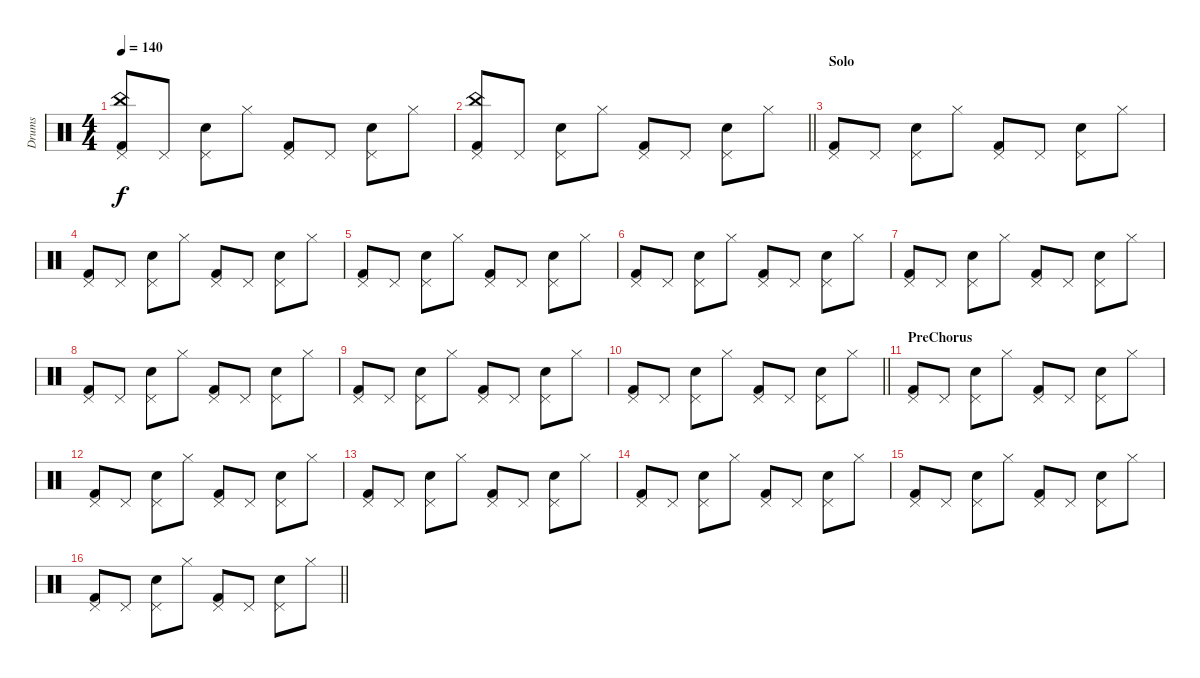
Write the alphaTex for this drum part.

\track ("Drums" "Drums") {instrument percussion}
\staff {score}
\articulation defaults
\ts (4 4)
\tempo 140
\clef neutral
\ks c
("Kick (hit) 2" "China (hit)" "Pedal Hi-Hat (hit)").8{dy f} "Pedal Hi-Hat (hit)".8 ("Snare (hit) 2" "Pedal Hi-Hat (hit)").8 "Hi-Hat (closed)".8 ("Kick (hit) 2" "Pedal Hi-Hat (hit)").8 "Pedal Hi-Hat (hit)".8 ("Snare (hit) 2" "Pedal Hi-Hat (hit)").8 "Hi-Hat (closed)".8 |
\barLineRight lightlight
("Kick (hit) 2" "China (hit)" "Pedal Hi-Hat (hit)").8 "Pedal Hi-Hat (hit)".8 ("Snare (hit) 2" "Pedal Hi-Hat (hit)").8 "Hi-Hat (closed)".8 ("Kick (hit) 2" "Pedal Hi-Hat (hit)").8 "Pedal Hi-Hat (hit)".8 ("Snare (hit) 2" "Pedal Hi-Hat (hit)").8 "Hi-Hat (closed)".8 |
\section ("" "Solo")
("Kick (hit) 2" "Pedal Hi-Hat (hit)").8 "Pedal Hi-Hat (hit)".8 ("Snare (hit) 2" "Pedal Hi-Hat (hit)").8 "Hi-Hat (closed)".8 ("Kick (hit) 2" "Pedal Hi-Hat (hit)").8 "Pedal Hi-Hat (hit)".8 ("Snare (hit) 2" "Pedal Hi-Hat (hit)").8 "Hi-Hat (closed)".8 |
("Kick (hit) 2" "Pedal Hi-Hat (hit)").8 "Pedal Hi-Hat (hit)".8 ("Snare (hit) 2" "Pedal Hi-Hat (hit)").8 "Hi-Hat (closed)".8 ("Kick (hit) 2" "Pedal Hi-Hat (hit)").8 "Pedal Hi-Hat (hit)".8 ("Snare (hit) 2" "Pedal Hi-Hat (hit)").8 "Hi-Hat (closed)".8 |
("Kick (hit) 2" "Pedal Hi-Hat (hit)").8 "Pedal Hi-Hat (hit)".8 ("Snare (hit) 2" "Pedal Hi-Hat (hit)").8 "Hi-Hat (closed)".8 ("Kick (hit) 2" "Pedal Hi-Hat (hit)").8 "Pedal Hi-Hat (hit)".8 ("Snare (hit) 2" "Pedal Hi-Hat (hit)").8 "Hi-Hat (closed)".8 |
("Kick (hit) 2" "Pedal Hi-Hat (hit)").8 "Pedal Hi-Hat (hit)".8 ("Snare (hit) 2" "Pedal Hi-Hat (hit)").8 "Hi-Hat (closed)".8 ("Kick (hit) 2" "Pedal Hi-Hat (hit)").8 "Pedal Hi-Hat (hit)".8 ("Snare (hit) 2" "Pedal Hi-Hat (hit)").8 "Hi-Hat (closed)".8 |
("Kick (hit) 2" "Pedal Hi-Hat (hit)").8 "Pedal Hi-Hat (hit)".8 ("Snare (hit) 2" "Pedal Hi-Hat (hit)").8 "Hi-Hat (closed)".8 ("Kick (hit) 2" "Pedal Hi-Hat (hit)").8 "Pedal Hi-Hat (hit)".8 ("Snare (hit) 2" "Pedal Hi-Hat (hit)").8 "Hi-Hat (closed)".8 |
("Kick (hit) 2" "Pedal Hi-Hat (hit)").8 "Pedal Hi-Hat (hit)".8 ("Snare (hit) 2" "Pedal Hi-Hat (hit)").8 "Hi-Hat (closed)".8 ("Kick (hit) 2" "Pedal Hi-Hat (hit)").8 "Pedal Hi-Hat (hit)".8 ("Snare (hit) 2" "Pedal Hi-Hat (hit)").8 "Hi-Hat (closed)".8 |
("Kick (hit) 2" "Pedal Hi-Hat (hit)").8 "Pedal Hi-Hat (hit)".8 ("Snare (hit) 2" "Pedal Hi-Hat (hit)").8 "Hi-Hat (closed)".8 ("Kick (hit) 2" "Pedal Hi-Hat (hit)").8 "Pedal Hi-Hat (hit)".8 ("Snare (hit) 2" "Pedal Hi-Hat (hit)").8 "Hi-Hat (closed)".8 |
\barLineRight lightlight
("Kick (hit) 2" "Pedal Hi-Hat (hit)").8 "Pedal Hi-Hat (hit)".8 ("Snare (hit) 2" "Pedal Hi-Hat (hit)").8 "Hi-Hat (closed)".8 ("Kick (hit) 2" "Pedal Hi-Hat (hit)").8 "Pedal Hi-Hat (hit)".8 ("Snare (hit) 2" "Pedal Hi-Hat (hit)").8 "Hi-Hat (closed)".8 |
\section ("" "PreChorus")
("Kick (hit) 2" "Pedal Hi-Hat (hit)").8 "Pedal Hi-Hat (hit)".8 ("Snare (hit) 2" "Pedal Hi-Hat (hit)").8 "Hi-Hat (closed)".8 ("Kick (hit) 2" "Pedal Hi-Hat (hit)").8 "Pedal Hi-Hat (hit)".8 ("Snare (hit) 2" "Pedal Hi-Hat (hit)").8 "Hi-Hat (closed)".8 |
("Kick (hit) 2" "Pedal Hi-Hat (hit)").8 "Pedal Hi-Hat (hit)".8 ("Snare (hit) 2" "Pedal Hi-Hat (hit)").8 "Hi-Hat (closed)".8 ("Kick (hit) 2" "Pedal Hi-Hat (hit)").8 "Pedal Hi-Hat (hit)".8 ("Snare (hit) 2" "Pedal Hi-Hat (hit)").8 "Hi-Hat (closed)".8 |
("Kick (hit) 2" "Pedal Hi-Hat (hit)").8 "Pedal Hi-Hat (hit)".8 ("Snare (hit) 2" "Pedal Hi-Hat (hit)").8 "Hi-Hat (closed)".8 ("Kick (hit) 2" "Pedal Hi-Hat (hit)").8 "Pedal Hi-Hat (hit)".8 ("Snare (hit) 2" "Pedal Hi-Hat (hit)").8 "Hi-Hat (closed)".8 |
("Kick (hit) 2" "Pedal Hi-Hat (hit)").8 "Pedal Hi-Hat (hit)".8 ("Snare (hit) 2" "Pedal Hi-Hat (hit)").8 "Hi-Hat (closed)".8 ("Kick (hit) 2" "Pedal Hi-Hat (hit)").8 "Pedal Hi-Hat (hit)".8 ("Snare (hit) 2" "Pedal Hi-Hat (hit)").8 "Hi-Hat (closed)".8 |
("Kick (hit) 2" "Pedal Hi-Hat (hit)").8 "Pedal Hi-Hat (hit)".8 ("Snare (hit) 2" "Pedal Hi-Hat (hit)").8 "Hi-Hat (closed)".8 ("Kick (hit) 2" "Pedal Hi-Hat (hit)").8 "Pedal Hi-Hat (hit)".8 ("Snare (hit) 2" "Pedal Hi-Hat (hit)").8 "Hi-Hat (closed)".8 |
\barLineRight lightlight
("Kick (hit) 2" "Pedal Hi-Hat (hit)").8 "Pedal Hi-Hat (hit)".8 ("Snare (hit) 2" "Pedal Hi-Hat (hit)").8 "Hi-Hat (closed)".8 ("Kick (hit) 2" "Pedal Hi-Hat (hit)").8 "Pedal Hi-Hat (hit)".8 ("Snare (hit) 2" "Pedal Hi-Hat (hit)").8 "Hi-Hat (closed)".8
